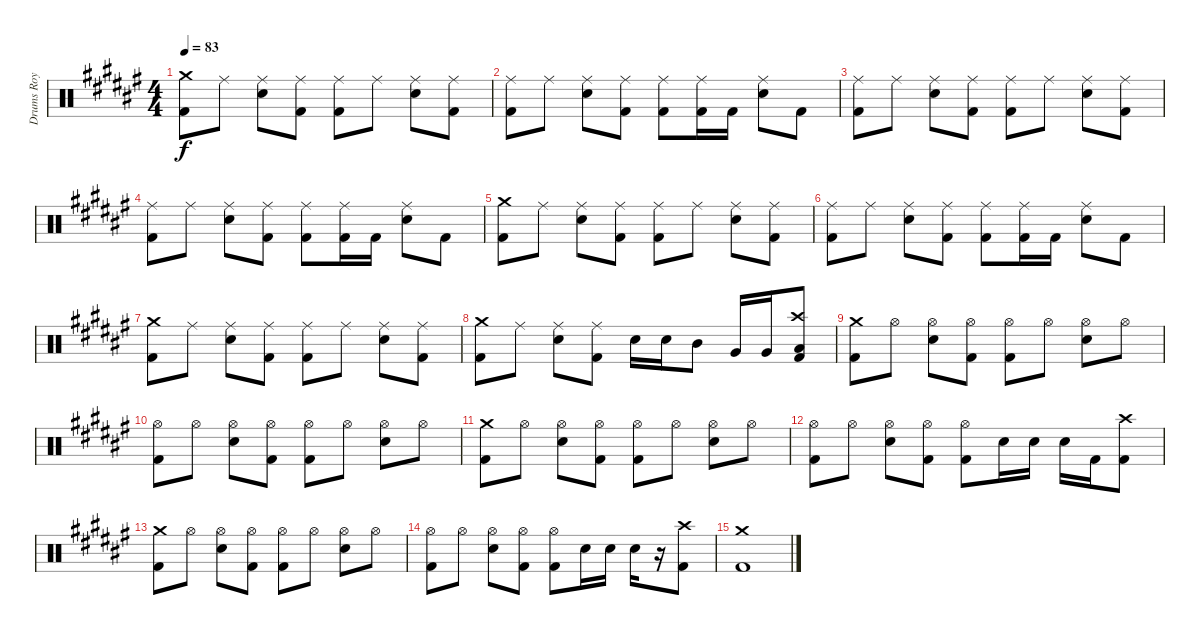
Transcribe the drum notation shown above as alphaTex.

\track ("Drums Roy" "Drums Roy") {instrument percussion}
\staff {score}
\articulation defaults
\ts (4 4)
\tempo 83
\clef neutral
\ks d#minor
("Crash medium (hit)" "Kick (hit) 2").8{dy f} "Ride (middle)".8 ("Ride (middle)" "Electric Snare (hit)").8 ("Ride (middle)" "Kick (hit) 2").8 ("Ride (middle)" "Kick (hit) 2").8 "Ride (middle)".8 ("Ride (middle)" "Electric Snare (hit)").8 ("Ride (middle)" "Kick (hit) 2").8 |
("Ride (middle)" "Kick (hit) 2").8 "Ride (middle)".8 ("Ride (middle)" "Electric Snare (hit)").8 ("Ride (middle)" "Kick (hit) 2").8 ("Ride (middle)" "Kick (hit) 2").8 ("Ride (middle)" "Kick (hit) 2").16 "Kick (hit) 2".16 ("Ride (middle)" "Electric Snare (hit)").8 "Kick (hit) 2".8 |
("Ride (middle)" "Kick (hit) 2").8 "Ride (middle)".8 ("Ride (middle)" "Electric Snare (hit)").8 ("Ride (middle)" "Kick (hit) 2").8 ("Ride (middle)" "Kick (hit) 2").8 "Ride (middle)".8 ("Ride (middle)" "Electric Snare (hit)").8 ("Ride (middle)" "Kick (hit) 2").8 |
("Ride (middle)" "Kick (hit) 2").8 "Ride (middle)".8 ("Ride (middle)" "Electric Snare (hit)").8 ("Ride (middle)" "Kick (hit) 2").8 ("Ride (middle)" "Kick (hit) 2").8 ("Ride (middle)" "Kick (hit) 2").16 "Kick (hit) 2".16 ("Ride (middle)" "Electric Snare (hit)").8 "Kick (hit) 2".8 |
("Crash medium (hit)" "Kick (hit) 2").8 "Ride (middle)".8 ("Ride (middle)" "Electric Snare (hit)").8 ("Ride (middle)" "Kick (hit) 2").8 ("Ride (middle)" "Kick (hit) 2").8 "Ride (middle)".8 ("Ride (middle)" "Electric Snare (hit)").8 ("Ride (middle)" "Kick (hit) 2").8 |
("Ride (middle)" "Kick (hit) 2").8 "Ride (middle)".8 ("Ride (middle)" "Electric Snare (hit)").8 ("Ride (middle)" "Kick (hit) 2").8 ("Ride (middle)" "Kick (hit) 2").8 ("Ride (middle)" "Kick (hit) 2").16 "Kick (hit) 2".16 ("Ride (middle)" "Electric Snare (hit)").8 "Kick (hit) 2".8 |
("Crash medium (hit)" "Kick (hit) 2").8 "Ride (middle)".8 ("Ride (middle)" "Electric Snare (hit)").8 ("Ride (middle)" "Kick (hit) 2").8 ("Ride (middle)" "Kick (hit) 2").8 "Ride (middle)".8 ("Ride (middle)" "Electric Snare (hit)").8 ("Ride (middle)" "Kick (hit) 2").8 |
("Crash medium (hit)" "Kick (hit) 2").8 "Ride (middle)".8 ("Ride (middle)" "Electric Snare (hit)").8 ("Ride (middle)" "Kick (hit) 2").8 "Electric Snare (hit)".16 "Electric Snare (hit)".16 "Mid Tom (hit)".8 "Very Low Tom (hit)".16 "Very Low Tom (hit)".16 ("Crash high (hit)" "Low Floor Tom (hit)" "Kick (hit) 2").8 |
("Crash medium (hit)" "Kick (hit) 2").8 "Hi-Hat (open)".8 ("Hi-Hat (open)" "Electric Snare (hit)").8 ("Hi-Hat (open)" "Kick (hit) 2").8 ("Hi-Hat (open)" "Kick (hit) 2").8 "Hi-Hat (open)".8 ("Hi-Hat (open)" "Electric Snare (hit)").8 "Hi-Hat (open)".8 |
("Hi-Hat (open)" "Kick (hit) 2").8 "Hi-Hat (open)".8 ("Hi-Hat (open)" "Electric Snare (hit)").8 ("Hi-Hat (open)" "Kick (hit) 2").8 ("Hi-Hat (open)" "Kick (hit) 2").8 "Hi-Hat (open)".8 ("Hi-Hat (open)" "Electric Snare (hit)").8 "Hi-Hat (open)".8 |
("Crash medium (hit)" "Kick (hit) 2").8 "Hi-Hat (open)".8 ("Hi-Hat (open)" "Electric Snare (hit)").8 ("Hi-Hat (open)" "Kick (hit) 2").8 ("Hi-Hat (open)" "Kick (hit) 2").8 "Hi-Hat (open)".8 ("Hi-Hat (open)" "Electric Snare (hit)").8 "Hi-Hat (open)".8 |
("Hi-Hat (open)" "Kick (hit) 2").8 "Hi-Hat (open)".8 ("Hi-Hat (open)" "Electric Snare (hit)").8 ("Hi-Hat (open)" "Kick (hit) 2").8 ("Hi-Hat (open)" "Kick (hit) 2").8 "Electric Snare (hit)".16 "Electric Snare (hit)".16 "Electric Snare (hit)".16 "Kick (hit) 2".16 ("Crash high (hit)" "Kick (hit) 2").8 |
("Crash medium (hit)" "Kick (hit) 2").8 "Hi-Hat (open)".8 ("Hi-Hat (open)" "Electric Snare (hit)").8 ("Hi-Hat (open)" "Kick (hit) 2").8 ("Hi-Hat (open)" "Kick (hit) 2").8 "Hi-Hat (open)".8 ("Hi-Hat (open)" "Electric Snare (hit)").8 "Hi-Hat (open)".8 |
("Hi-Hat (open)" "Kick (hit) 2").8 "Hi-Hat (open)".8 ("Hi-Hat (open)" "Electric Snare (hit)").8 ("Hi-Hat (open)" "Kick (hit) 2").8 ("Hi-Hat (open)" "Kick (hit) 2").8 "Electric Snare (hit)".16 "Electric Snare (hit)".16 "Electric Snare (hit)".16 r.16 ("Crash high (hit)" "Kick (hit) 2").8 |
("Crash medium (hit)" "Kick (hit) 2").1
